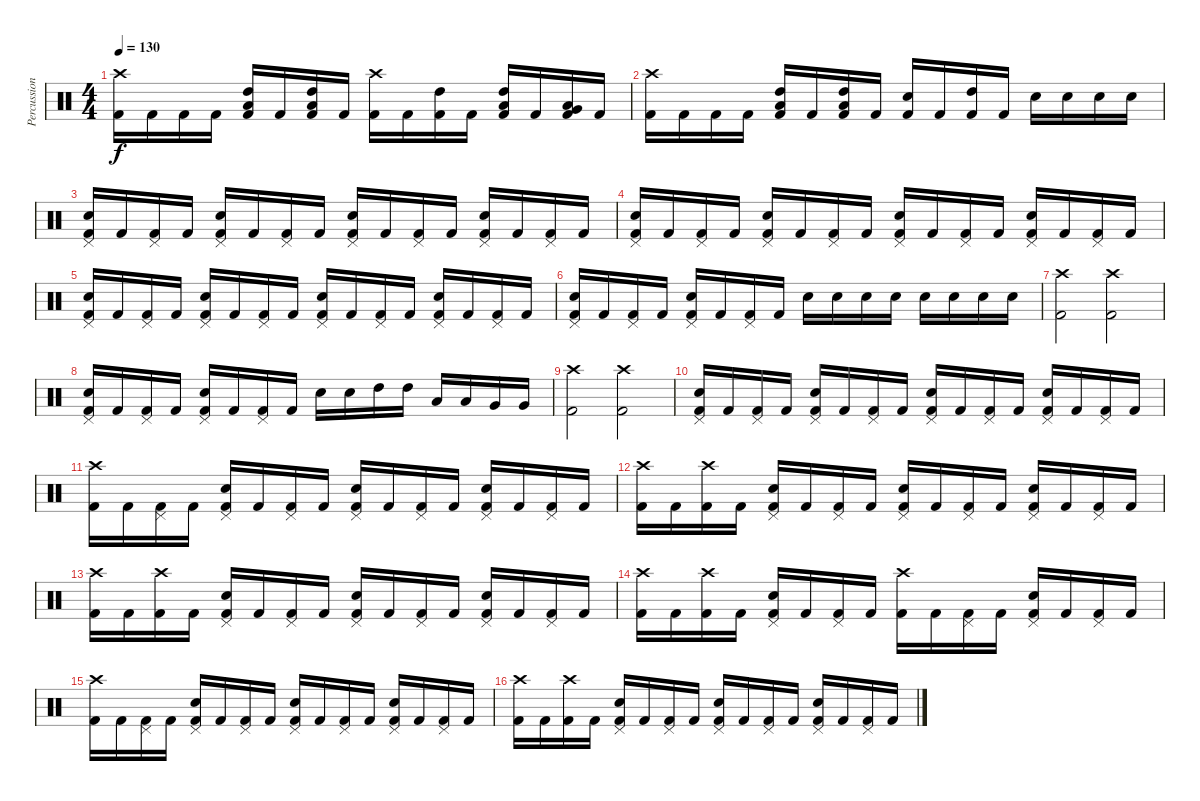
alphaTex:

\track ("Percussion" "Percussion") {instrument percussion}
\staff {score}
\articulation defaults
\ts (4 4)
\tempo 130
\clef neutral
\ks c
("Crash high (hit)" "Kick (hit) 2").16{dy f} "Kick (hit) 2".16 "Kick (hit) 2".16 "Kick (hit) 2".16 ("High Tom (hit)" "Low Tom (hit)" "Kick (hit) 2").16 "Kick (hit) 2".16 ("High Tom (hit)" "Low Tom (hit)" "Kick (hit) 2").16 "Kick (hit) 2".16 ("Crash high (hit)" "Kick (hit) 2").16 "Kick (hit) 2".16 ("High Tom (hit)" "Kick (hit) 2").16 "Kick (hit) 2".16 ("High Tom (hit)" "Low Tom (hit)" "Kick (hit) 2").16 "Kick (hit) 2".16 ("Low Tom (hit)" "Very Low Tom (hit)" "Kick (hit) 2").16 "Kick (hit) 2".16 |
("Crash high (hit)" "Kick (hit) 2").16 "Kick (hit) 2".16 "Kick (hit) 2".16 "Kick (hit) 2".16 ("High Tom (hit)" "Low Tom (hit)" "Kick (hit) 2").16 "Kick (hit) 2".16 ("High Tom (hit)" "Low Tom (hit)" "Kick (hit) 2").16 "Kick (hit) 2".16 ("Snare (hit) 2" "Kick (hit) 2").16 "Kick (hit) 2".16 ("High Tom (hit)" "Kick (hit) 2").16 "Kick (hit) 2".16 "Snare (hit) 2".16 "Snare (hit) 2".16 "Snare (hit) 2".16 "Snare (hit) 2".16 |
("Pedal Hi-Hat (hit)" "Snare (hit) 2" "Kick (hit) 2").16 "Kick (hit) 2".16 ("Pedal Hi-Hat (hit)" "Kick (hit) 2").16 "Kick (hit) 2".16 ("Pedal Hi-Hat (hit)" "Snare (hit) 2" "Kick (hit) 2").16 "Kick (hit) 2".16 ("Pedal Hi-Hat (hit)" "Kick (hit) 2").16 "Kick (hit) 2".16 ("Pedal Hi-Hat (hit)" "Snare (hit) 2" "Kick (hit) 2").16 "Kick (hit) 2".16 ("Pedal Hi-Hat (hit)" "Kick (hit) 2").16 "Kick (hit) 2".16 ("Pedal Hi-Hat (hit)" "Snare (hit) 2" "Kick (hit) 2").16 "Kick (hit) 2".16 ("Pedal Hi-Hat (hit)" "Kick (hit) 2").16 "Kick (hit) 2".16 |
("Pedal Hi-Hat (hit)" "Snare (hit) 2" "Kick (hit) 2").16 "Kick (hit) 2".16 ("Pedal Hi-Hat (hit)" "Kick (hit) 2").16 "Kick (hit) 2".16 ("Pedal Hi-Hat (hit)" "Snare (hit) 2" "Kick (hit) 2").16 "Kick (hit) 2".16 ("Pedal Hi-Hat (hit)" "Kick (hit) 2").16 "Kick (hit) 2".16 ("Pedal Hi-Hat (hit)" "Snare (hit) 2" "Kick (hit) 2").16 "Kick (hit) 2".16 ("Pedal Hi-Hat (hit)" "Kick (hit) 2").16 "Kick (hit) 2".16 ("Pedal Hi-Hat (hit)" "Snare (hit) 2" "Kick (hit) 2").16 "Kick (hit) 2".16 ("Pedal Hi-Hat (hit)" "Kick (hit) 2").16 "Kick (hit) 2".16 |
("Pedal Hi-Hat (hit)" "Snare (hit) 2" "Kick (hit) 2").16 "Kick (hit) 2".16 ("Pedal Hi-Hat (hit)" "Kick (hit) 2").16 "Kick (hit) 2".16 ("Pedal Hi-Hat (hit)" "Snare (hit) 2" "Kick (hit) 2").16 "Kick (hit) 2".16 ("Pedal Hi-Hat (hit)" "Kick (hit) 2").16 "Kick (hit) 2".16 ("Pedal Hi-Hat (hit)" "Snare (hit) 2" "Kick (hit) 2").16 "Kick (hit) 2".16 ("Pedal Hi-Hat (hit)" "Kick (hit) 2").16 "Kick (hit) 2".16 ("Pedal Hi-Hat (hit)" "Snare (hit) 2" "Kick (hit) 2").16 "Kick (hit) 2".16 ("Pedal Hi-Hat (hit)" "Kick (hit) 2").16 "Kick (hit) 2".16 |
("Pedal Hi-Hat (hit)" "Snare (hit) 2" "Kick (hit) 2").16 "Kick (hit) 2".16 ("Pedal Hi-Hat (hit)" "Kick (hit) 2").16 "Kick (hit) 2".16 ("Pedal Hi-Hat (hit)" "Snare (hit) 2" "Kick (hit) 2").16 "Kick (hit) 2".16 ("Pedal Hi-Hat (hit)" "Kick (hit) 2").16 "Kick (hit) 2".16 "Snare (hit) 2".16 "Snare (hit) 2".16 "Snare (hit) 2".16 "Snare (hit) 2".16 "Snare (hit) 2".16 "Snare (hit) 2".16 "Snare (hit) 2".16 "Snare (hit) 2".16 |
("Crash high (hit)" "Kick (hit) 2").2 ("Crash high (hit)" "Kick (hit) 2").2 |
("Pedal Hi-Hat (hit)" "Snare (hit) 2" "Kick (hit) 2").16 "Kick (hit) 2".16 ("Pedal Hi-Hat (hit)" "Kick (hit) 2").16 "Kick (hit) 2".16 ("Pedal Hi-Hat (hit)" "Snare (hit) 2" "Kick (hit) 2").16 "Kick (hit) 2".16 ("Pedal Hi-Hat (hit)" "Kick (hit) 2").16 "Kick (hit) 2".16 "Snare (hit) 2".16 "Snare (hit) 2".16 "High Tom (hit)".16 "High Tom (hit)".16 "Low Tom (hit)".16 "Low Tom (hit)".16 "Very Low Tom (hit)".16 "Very Low Tom (hit)".16 |
("Crash high (hit)" "Kick (hit) 2").2 ("Crash high (hit)" "Kick (hit) 2").2 |
("Pedal Hi-Hat (hit)" "Snare (hit) 2" "Kick (hit) 2").16 "Kick (hit) 2".16 ("Pedal Hi-Hat (hit)" "Kick (hit) 2").16 "Kick (hit) 2".16 ("Pedal Hi-Hat (hit)" "Snare (hit) 2" "Kick (hit) 2").16 "Kick (hit) 2".16 ("Pedal Hi-Hat (hit)" "Kick (hit) 2").16 "Kick (hit) 2".16 ("Pedal Hi-Hat (hit)" "Snare (hit) 2" "Kick (hit) 2").16 "Kick (hit) 2".16 ("Pedal Hi-Hat (hit)" "Kick (hit) 2").16 "Kick (hit) 2".16 ("Pedal Hi-Hat (hit)" "Snare (hit) 2" "Kick (hit) 2").16 "Kick (hit) 2".16 ("Pedal Hi-Hat (hit)" "Kick (hit) 2").16 "Kick (hit) 2".16 |
("Crash high (hit)" "Kick (hit) 2").16 "Kick (hit) 2".16 ("Pedal Hi-Hat (hit)" "Kick (hit) 2").16 "Kick (hit) 2".16 ("Pedal Hi-Hat (hit)" "Snare (hit) 2" "Kick (hit) 2").16 "Kick (hit) 2".16 ("Pedal Hi-Hat (hit)" "Kick (hit) 2").16 "Kick (hit) 2".16 ("Pedal Hi-Hat (hit)" "Snare (hit) 2" "Kick (hit) 2").16 "Kick (hit) 2".16 ("Pedal Hi-Hat (hit)" "Kick (hit) 2").16 "Kick (hit) 2".16 ("Pedal Hi-Hat (hit)" "Snare (hit) 2" "Kick (hit) 2").16 "Kick (hit) 2".16 ("Pedal Hi-Hat (hit)" "Kick (hit) 2").16 "Kick (hit) 2".16 |
("Crash high (hit)" "Kick (hit) 2").16 "Kick (hit) 2".16 ("Crash high (hit)" "Kick (hit) 2").16 "Kick (hit) 2".16 ("Pedal Hi-Hat (hit)" "Snare (hit) 2" "Kick (hit) 2").16 "Kick (hit) 2".16 ("Pedal Hi-Hat (hit)" "Kick (hit) 2").16 "Kick (hit) 2".16 ("Pedal Hi-Hat (hit)" "Snare (hit) 2" "Kick (hit) 2").16 "Kick (hit) 2".16 ("Pedal Hi-Hat (hit)" "Kick (hit) 2").16 "Kick (hit) 2".16 ("Pedal Hi-Hat (hit)" "Snare (hit) 2" "Kick (hit) 2").16 "Kick (hit) 2".16 ("Pedal Hi-Hat (hit)" "Kick (hit) 2").16 "Kick (hit) 2".16 |
("Crash high (hit)" "Kick (hit) 2").16 "Kick (hit) 2".16 ("Crash high (hit)" "Kick (hit) 2").16 "Kick (hit) 2".16 ("Pedal Hi-Hat (hit)" "Snare (hit) 2" "Kick (hit) 2").16 "Kick (hit) 2".16 ("Pedal Hi-Hat (hit)" "Kick (hit) 2").16 "Kick (hit) 2".16 ("Pedal Hi-Hat (hit)" "Snare (hit) 2" "Kick (hit) 2").16 "Kick (hit) 2".16 ("Pedal Hi-Hat (hit)" "Kick (hit) 2").16 "Kick (hit) 2".16 ("Pedal Hi-Hat (hit)" "Snare (hit) 2" "Kick (hit) 2").16 "Kick (hit) 2".16 ("Pedal Hi-Hat (hit)" "Kick (hit) 2").16 "Kick (hit) 2".16 |
("Crash high (hit)" "Kick (hit) 2").16 "Kick (hit) 2".16 ("Crash high (hit)" "Kick (hit) 2").16 "Kick (hit) 2".16 ("Pedal Hi-Hat (hit)" "Snare (hit) 2" "Kick (hit) 2").16 "Kick (hit) 2".16 ("Pedal Hi-Hat (hit)" "Kick (hit) 2").16 "Kick (hit) 2".16 ("Crash high (hit)" "Kick (hit) 2").16 "Kick (hit) 2".16 ("Pedal Hi-Hat (hit)" "Kick (hit) 2").16 "Kick (hit) 2".16 ("Pedal Hi-Hat (hit)" "Snare (hit) 2" "Kick (hit) 2").16 "Kick (hit) 2".16 ("Pedal Hi-Hat (hit)" "Kick (hit) 2").16 "Kick (hit) 2".16 |
("Crash high (hit)" "Kick (hit) 2").16 "Kick (hit) 2".16 ("Pedal Hi-Hat (hit)" "Kick (hit) 2").16 "Kick (hit) 2".16 ("Pedal Hi-Hat (hit)" "Snare (hit) 2" "Kick (hit) 2").16 "Kick (hit) 2".16 ("Pedal Hi-Hat (hit)" "Kick (hit) 2").16 "Kick (hit) 2".16 ("Pedal Hi-Hat (hit)" "Snare (hit) 2" "Kick (hit) 2").16 "Kick (hit) 2".16 ("Pedal Hi-Hat (hit)" "Kick (hit) 2").16 "Kick (hit) 2".16 ("Pedal Hi-Hat (hit)" "Snare (hit) 2" "Kick (hit) 2").16 "Kick (hit) 2".16 ("Pedal Hi-Hat (hit)" "Kick (hit) 2").16 "Kick (hit) 2".16 |
("Crash high (hit)" "Kick (hit) 2").16 "Kick (hit) 2".16 ("Crash high (hit)" "Kick (hit) 2").16 "Kick (hit) 2".16 ("Pedal Hi-Hat (hit)" "Snare (hit) 2" "Kick (hit) 2").16 "Kick (hit) 2".16 ("Pedal Hi-Hat (hit)" "Kick (hit) 2").16 "Kick (hit) 2".16 ("Pedal Hi-Hat (hit)" "Snare (hit) 2" "Kick (hit) 2").16 "Kick (hit) 2".16 ("Pedal Hi-Hat (hit)" "Kick (hit) 2").16 "Kick (hit) 2".16 ("Pedal Hi-Hat (hit)" "Snare (hit) 2" "Kick (hit) 2").16 "Kick (hit) 2".16 ("Pedal Hi-Hat (hit)" "Kick (hit) 2").16 "Kick (hit) 2".16
